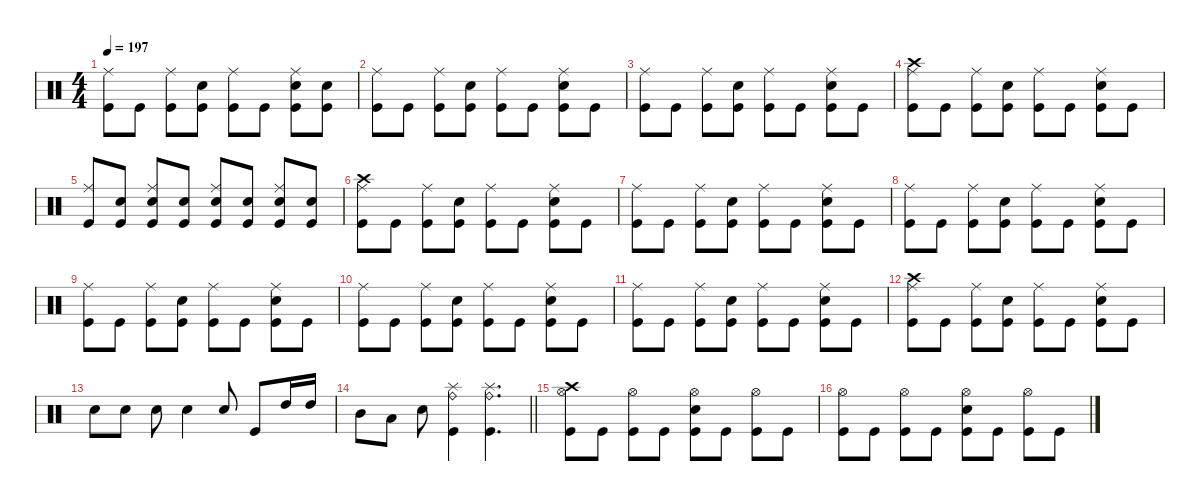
\defaultSystemsLayout 4
\hideDynamics
\bracketExtendMode nobrackets
\singleTrackTrackNamePolicy hidden
\multiTrackTrackNamePolicy hidden
\firstSystemTrackNameMode fullname
\firstSystemTrackNameOrientation horizontal
\otherSystemsTrackNameOrientation horizontal
\track ("Drums" "drm.") {defaultSystemsLayout 4 instrument percussion}
\staff {score}
\articulation defaults
\ts (4 4)
\tempo 197
\clef neutral
\ks c
("Ride (middle)" "Kick (hit)").8{dy f beam Down} "Kick (hit)".8{beam Down} ("Ride (middle)" "Kick (hit)").8{beam Down} ("Snare (hit) 2" "Kick (hit)").8{beam Down} ("Ride (middle)" "Kick (hit)").8{beam Down} "Kick (hit)".8{beam Down} ("Ride (middle)" "Snare (hit) 2" "Kick (hit)").8{beam Down} ("Snare (hit) 2" "Kick (hit)").8{beam Down} |
("Ride (middle)" "Kick (hit)").8{beam Down} "Kick (hit)".8{beam Down} ("Ride (middle)" "Kick (hit)").8{beam Down} ("Snare (hit) 2" "Kick (hit)").8{beam Down} ("Ride (middle)" "Kick (hit)").8{beam Down} "Kick (hit)".8{beam Down} ("Ride (middle)" "Snare (hit) 2" "Kick (hit)").8{beam Down} "Kick (hit)".8{beam Down} |
("Ride (middle)" "Kick (hit)").8{beam Down} "Kick (hit)".8{beam Down} ("Ride (middle)" "Kick (hit)").8{beam Down} ("Snare (hit) 2" "Kick (hit)").8{beam Down} ("Ride (middle)" "Kick (hit)").8{beam Down} "Kick (hit)".8{beam Down} ("Ride (middle)" "Snare (hit) 2" "Kick (hit)").8{beam Down} "Kick (hit)".8{beam Down} |
("Crash high (hit)" "Ride (middle)" "Kick (hit)").8{beam Down} "Kick (hit)".8{beam Down} ("Ride (middle)" "Kick (hit)").8{beam Down} ("Snare (hit) 2" "Kick (hit)").8{beam Down} ("Ride (middle)" "Kick (hit)").8{beam Down} "Kick (hit)".8{beam Down} ("Ride (middle)" "Snare (hit) 2" "Kick (hit)").8{beam Down} "Kick (hit)".8{beam Down} |
("Ride (middle)" "Kick (hit)").8{beam Up} ("Snare (hit) 2" "Kick (hit)").8{beam Up} ("Ride (middle)" "Snare (hit) 2" "Kick (hit)").8{beam Up} ("Snare (hit) 2" "Kick (hit)").8{beam Up} ("Ride (middle)" "Snare (hit) 2" "Kick (hit)").8{beam Up} ("Snare (hit) 2" "Kick (hit)").8{beam Up} ("Ride (middle)" "Snare (hit) 2" "Kick (hit)").8{beam Up} ("Snare (hit) 2" "Kick (hit)").8{beam Up} |
("Crash high (hit)" "Ride (middle)" "Kick (hit)").8{beam Down} "Kick (hit)".8{beam Down} ("Ride (middle)" "Kick (hit)").8{beam Down} ("Snare (hit) 2" "Kick (hit)").8{beam Down} ("Ride (middle)" "Kick (hit)").8{beam Down} "Kick (hit)".8{beam Down} ("Ride (middle)" "Snare (hit) 2" "Kick (hit)").8{beam Down} "Kick (hit)".8{beam Down} |
("Ride (middle)" "Kick (hit)").8{beam Down} "Kick (hit)".8{beam Down} ("Ride (middle)" "Kick (hit)").8{beam Down} ("Snare (hit) 2" "Kick (hit)").8{beam Down} ("Ride (middle)" "Kick (hit)").8{beam Down} "Kick (hit)".8{beam Down} ("Ride (middle)" "Snare (hit) 2" "Kick (hit)").8{beam Down} "Kick (hit)".8{beam Down} |
("Ride (middle)" "Kick (hit)").8{beam Down} "Kick (hit)".8{beam Down} ("Ride (middle)" "Kick (hit)").8{beam Down} ("Snare (hit) 2" "Kick (hit)").8{beam Down} ("Ride (middle)" "Kick (hit)").8{beam Down} "Kick (hit)".8{beam Down} ("Ride (middle)" "Snare (hit) 2" "Kick (hit)").8{beam Down} "Kick (hit)".8{beam Down} |
("Ride (middle)" "Kick (hit)").8{beam Down} "Kick (hit)".8{beam Down} ("Ride (middle)" "Kick (hit)").8{beam Down} ("Snare (hit) 2" "Kick (hit)").8{beam Down} ("Ride (middle)" "Kick (hit)").8{beam Down} "Kick (hit)".8{beam Down} ("Ride (middle)" "Snare (hit) 2" "Kick (hit)").8{beam Down} "Kick (hit)".8{beam Down} |
("Ride (middle)" "Kick (hit)").8{beam Down} "Kick (hit)".8{beam Down} ("Ride (middle)" "Kick (hit)").8{beam Down} ("Snare (hit) 2" "Kick (hit)").8{beam Down} ("Ride (middle)" "Kick (hit)").8{beam Down} "Kick (hit)".8{beam Down} ("Ride (middle)" "Snare (hit) 2" "Kick (hit)").8{beam Down} "Kick (hit)".8{beam Down} |
("Ride (middle)" "Kick (hit)").8{beam Down} "Kick (hit)".8{beam Down} ("Ride (middle)" "Kick (hit)").8{beam Down} ("Snare (hit) 2" "Kick (hit)").8{beam Down} ("Ride (middle)" "Kick (hit)").8{beam Down} "Kick (hit)".8{beam Down} ("Ride (middle)" "Snare (hit) 2" "Kick (hit)").8{beam Down} "Kick (hit)".8{beam Down} |
("Crash high (hit)" "Ride (middle)" "Kick (hit)").8{beam Down} "Kick (hit)".8{beam Down} ("Ride (middle)" "Kick (hit)").8{beam Down} ("Snare (hit) 2" "Kick (hit)").8{beam Down} ("Ride (middle)" "Kick (hit)").8{beam Down} "Kick (hit)".8{beam Down} ("Ride (middle)" "Snare (hit) 2" "Kick (hit)").8{beam Down} "Kick (hit)".8{beam Down} |
"Snare (hit) 2".8{beam Down} "Snare (hit) 2".8{beam Down} "Snare (hit) 2".8{beam Down} "Snare (hit) 2".4{beam Down} "Snare (hit) 2".8{beam Up} "Kick (hit)".8{beam Up} "High Tom (hit)".16{beam Up} "High Tom (hit)".16{beam Up} |
\barLineRight lightlight "Mid Tom (hit)".8{beam Down} "Low Tom (hit)".8{beam Down} "Snare (hit) 2".8{beam Down}
("Ride (bell)" "Splash (hit)" "Kick (hit)").4{beam Down} ("Ride (bell)" "Splash (hit)" "Kick (hit)").4{d beam Down} |
("Crash high (hit)" "Hi-Hat (open)" "Kick (hit)").8{beam Down} "Kick (hit)".8{beam Down} ("Hi-Hat (open)" "Kick (hit)").8{beam Down} "Kick (hit)".8{beam Down} ("Hi-Hat (open)" "Snare (hit) 2" "Kick (hit)").8{beam Down} "Kick (hit)".8{beam Down} ("Hi-Hat (open)" "Kick (hit)").8{beam Down} "Kick (hit)".8{beam Down} |
("Hi-Hat (open)" "Kick (hit)").8{beam Down} "Kick (hit)".8{beam Down} ("Hi-Hat (open)" "Kick (hit)").8{beam Down} "Kick (hit)".8{beam Down} ("Hi-Hat (open)" "Snare (hit) 2" "Kick (hit)").8{beam Down} "Kick (hit)".8{beam Down} ("Hi-Hat (open)" "Kick (hit)").8{beam Down} "Kick (hit)".8{beam Down}
